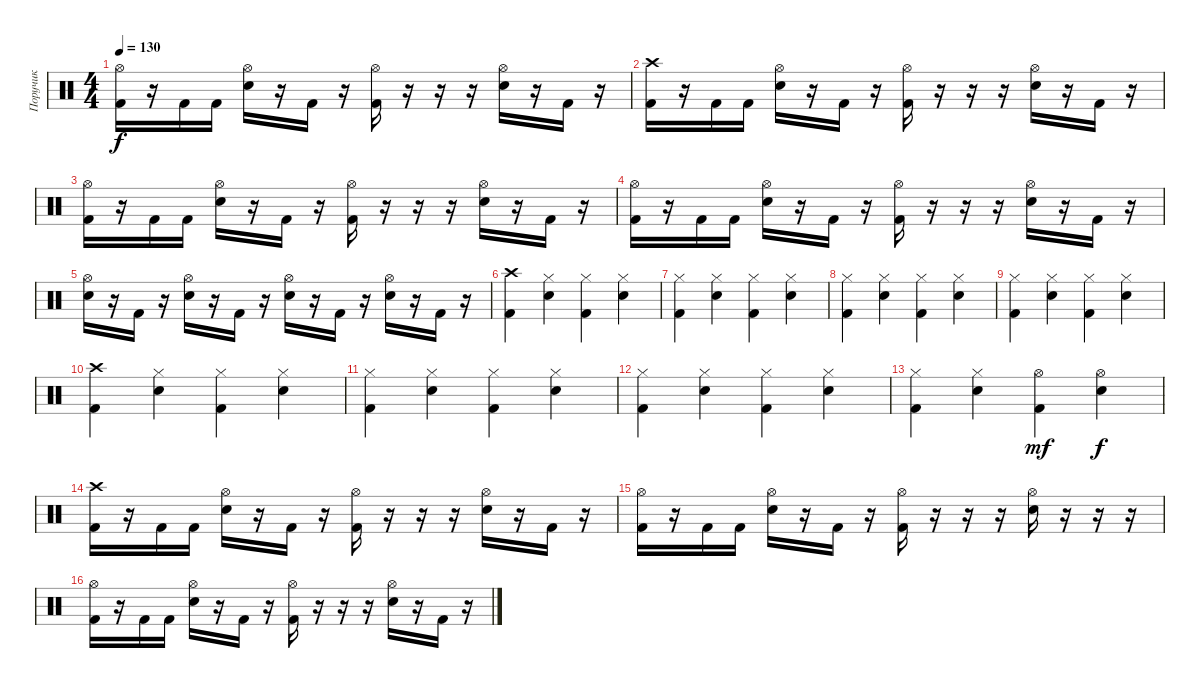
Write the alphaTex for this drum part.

\track ("Поручик" "Поручик") {instrument percussion}
\staff {score}
\articulation defaults
\ts (4 4)
\tempo 130
\clef neutral
\ks c
("Hi-Hat (open)" "Kick (hit) 2").16{dy f} r.16 "Kick (hit) 2".16 "Kick (hit) 2".16 ("Hi-Hat (open)" "Snare (hit) 2").16 r.16 "Kick (hit) 2".16 r.16 ("Hi-Hat (open)" "Kick (hit) 2").16 r.16 r.16 r.16 ("Hi-Hat (open)" "Snare (hit) 2").16 r.16 "Kick (hit) 2".16 r.16 |
("Crash high (hit)" "Kick (hit) 2").16 r.16 "Kick (hit) 2".16 "Kick (hit) 2".16 ("Hi-Hat (open)" "Snare (hit) 2").16 r.16 "Kick (hit) 2".16 r.16 ("Hi-Hat (open)" "Kick (hit) 2").16 r.16 r.16 r.16 ("Hi-Hat (open)" "Snare (hit) 2").16 r.16 "Kick (hit) 2".16 r.16 |
("Hi-Hat (open)" "Kick (hit) 2").16 r.16 "Kick (hit) 2".16 "Kick (hit) 2".16 ("Hi-Hat (open)" "Snare (hit) 2").16 r.16 "Kick (hit) 2".16 r.16 ("Hi-Hat (open)" "Kick (hit) 2").16 r.16 r.16 r.16 ("Hi-Hat (open)" "Snare (hit) 2").16 r.16 "Kick (hit) 2".16 r.16 |
("Hi-Hat (open)" "Kick (hit) 2").16 r.16 "Kick (hit) 2".16 "Kick (hit) 2".16 ("Hi-Hat (open)" "Snare (hit) 2").16 r.16 "Kick (hit) 2".16 r.16 ("Hi-Hat (open)" "Kick (hit) 2").16 r.16 r.16 r.16 ("Hi-Hat (open)" "Snare (hit) 2").16 r.16 "Kick (hit) 2".16 r.16 |
("Hi-Hat (open)" "Snare (hit) 2").16 r.16 "Kick (hit) 2".16 r.16 ("Hi-Hat (open)" "Snare (hit) 2").16 r.16 "Kick (hit) 2".16 r.16 ("Hi-Hat (open)" "Snare (hit) 2").16 r.16 "Kick (hit) 2".16 r.16 ("Hi-Hat (open)" "Snare (hit) 2").16 r.16 "Kick (hit) 2".16 r.16 |
("Crash high (hit)" "Kick (hit) 2").4 ("Hi-Hat (closed)" "Snare (hit) 2").4 ("Hi-Hat (closed)" "Kick (hit) 2").4 ("Hi-Hat (closed)" "Snare (hit) 2").4 |
("Hi-Hat (closed)" "Kick (hit) 2").4 ("Hi-Hat (closed)" "Snare (hit) 2").4 ("Hi-Hat (closed)" "Kick (hit) 2").4 ("Hi-Hat (closed)" "Snare (hit) 2").4 |
("Hi-Hat (closed)" "Kick (hit) 2").4 ("Hi-Hat (closed)" "Snare (hit) 2").4 ("Hi-Hat (closed)" "Kick (hit) 2").4 ("Hi-Hat (closed)" "Snare (hit) 2").4 |
("Hi-Hat (closed)" "Kick (hit) 2").4 ("Hi-Hat (closed)" "Snare (hit) 2").4 ("Hi-Hat (closed)" "Kick (hit) 2").4 ("Hi-Hat (closed)" "Snare (hit) 2").4 |
("Crash high (hit)" "Kick (hit) 2").4 ("Hi-Hat (closed)" "Snare (hit) 2").4 ("Hi-Hat (closed)" "Kick (hit) 2").4 ("Hi-Hat (closed)" "Snare (hit) 2").4 |
("Hi-Hat (closed)" "Kick (hit) 2").4 ("Hi-Hat (closed)" "Snare (hit) 2").4 ("Hi-Hat (closed)" "Kick (hit) 2").4 ("Hi-Hat (closed)" "Snare (hit) 2").4 |
("Hi-Hat (closed)" "Kick (hit) 2").4 ("Hi-Hat (closed)" "Snare (hit) 2").4 ("Hi-Hat (closed)" "Kick (hit) 2").4 ("Hi-Hat (closed)" "Snare (hit) 2").4 |
("Hi-Hat (closed)" "Kick (hit) 2").4 ("Hi-Hat (closed)" "Snare (hit) 2").4 ("Hi-Hat (open)" "Kick (hit) 2").4{dy mf} ("Hi-Hat (open)" "Snare (hit) 2").4{dy f} |
("Crash high (hit)" "Kick (hit) 2").16 r.16 "Kick (hit) 2".16 "Kick (hit) 2".16 ("Hi-Hat (open)" "Snare (hit) 2").16 r.16 "Kick (hit) 2".16 r.16 ("Hi-Hat (open)" "Kick (hit) 2").16 r.16 r.16 r.16 ("Hi-Hat (open)" "Snare (hit) 2").16 r.16 "Kick (hit) 2".16 r.16 |
("Hi-Hat (open)" "Kick (hit) 2").16 r.16 "Kick (hit) 2".16 "Kick (hit) 2".16 ("Hi-Hat (open)" "Snare (hit) 2").16 r.16 "Kick (hit) 2".16 r.16 ("Hi-Hat (open)" "Kick (hit) 2").16 r.16 r.16 r.16 ("Hi-Hat (open)" "Snare (hit) 2").16 r.16 r.16 r.16 |
("Hi-Hat (open)" "Kick (hit) 2").16 r.16 "Kick (hit) 2".16 "Kick (hit) 2".16 ("Hi-Hat (open)" "Snare (hit) 2").16 r.16 "Kick (hit) 2".16 r.16 ("Hi-Hat (open)" "Kick (hit) 2").16 r.16 r.16 r.16 ("Hi-Hat (open)" "Snare (hit) 2").16 r.16 "Kick (hit) 2".16 r.16
